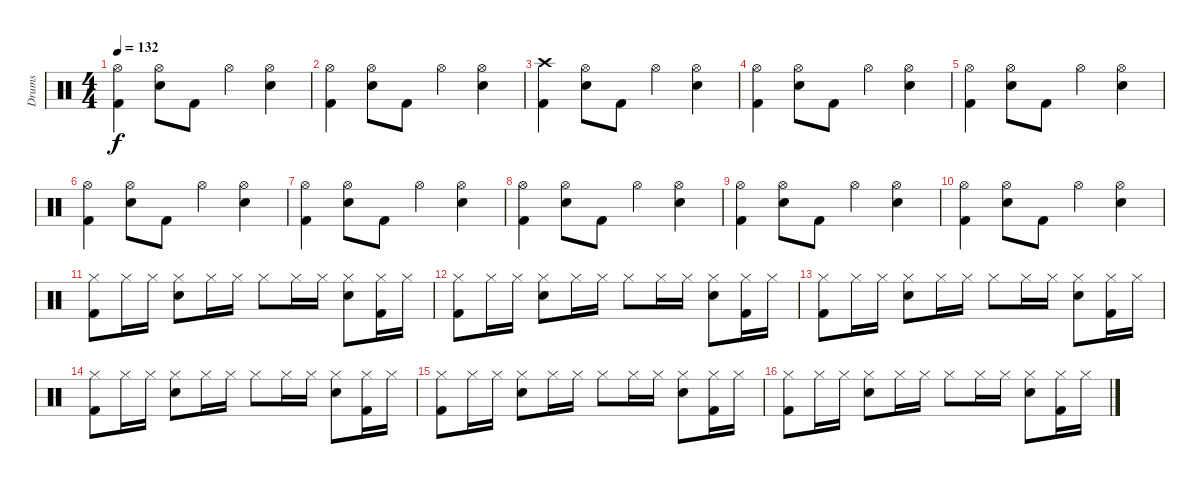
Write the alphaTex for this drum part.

\track ("Drums" "Drums") {instrument percussion}
\staff {score}
\articulation defaults
\ts (4 4)
\tempo 132
\clef neutral
\ks c
("Kick (hit) 2" "Hi-Hat (open)").4{dy f} ("Snare (hit) 2" "Hi-Hat (open)").8 "Kick (hit) 2".8 "Hi-Hat (open)".4 ("Snare (hit) 2" "Hi-Hat (open)").4 |
("Kick (hit) 2" "Hi-Hat (open)").4 ("Snare (hit) 2" "Hi-Hat (open)").8 "Kick (hit) 2".8 "Hi-Hat (open)".4 ("Snare (hit) 2" "Hi-Hat (open)").4 |
("Kick (hit) 2" "Crash high (hit)").4 ("Snare (hit) 2" "Hi-Hat (open)").8 "Kick (hit) 2".8 "Hi-Hat (open)".4 ("Snare (hit) 2" "Hi-Hat (open)").4 |
("Kick (hit) 2" "Hi-Hat (open)").4 ("Snare (hit) 2" "Hi-Hat (open)").8 "Kick (hit) 2".8 "Hi-Hat (open)".4 ("Snare (hit) 2" "Hi-Hat (open)").4 |
("Kick (hit) 2" "Hi-Hat (open)").4 ("Snare (hit) 2" "Hi-Hat (open)").8 "Kick (hit) 2".8 "Hi-Hat (open)".4 ("Snare (hit) 2" "Hi-Hat (open)").4 |
("Kick (hit) 2" "Hi-Hat (open)").4 ("Snare (hit) 2" "Hi-Hat (open)").8 "Kick (hit) 2".8 "Hi-Hat (open)".4 ("Snare (hit) 2" "Hi-Hat (open)").4 |
("Kick (hit) 2" "Hi-Hat (open)").4 ("Snare (hit) 2" "Hi-Hat (open)").8 "Kick (hit) 2".8 "Hi-Hat (open)".4 ("Snare (hit) 2" "Hi-Hat (open)").4 |
("Kick (hit) 2" "Hi-Hat (open)").4 ("Snare (hit) 2" "Hi-Hat (open)").8 "Kick (hit) 2".8 "Hi-Hat (open)".4 ("Snare (hit) 2" "Hi-Hat (open)").4 |
("Kick (hit) 2" "Hi-Hat (open)").4 ("Snare (hit) 2" "Hi-Hat (open)").8 "Kick (hit) 2".8 "Hi-Hat (open)".4 ("Snare (hit) 2" "Hi-Hat (open)").4 |
("Kick (hit) 2" "Hi-Hat (open)").4 ("Snare (hit) 2" "Hi-Hat (open)").8 "Kick (hit) 2".8 "Hi-Hat (open)".4 ("Snare (hit) 2" "Hi-Hat (open)").4 |
("Kick (hit) 2" "Hi-Hat (closed)").8 "Hi-Hat (closed)".16 "Hi-Hat (closed)".16 ("Snare (hit) 2" "Hi-Hat (closed)").8 "Hi-Hat (closed)".16 "Hi-Hat (closed)".16 "Hi-Hat (closed)".8 "Hi-Hat (closed)".16 "Hi-Hat (closed)".16 ("Snare (hit) 2" "Hi-Hat (closed)").8 ("Kick (hit) 2" "Hi-Hat (closed)").16 "Hi-Hat (closed)".16 |
("Kick (hit) 2" "Hi-Hat (closed)").8 "Hi-Hat (closed)".16 "Hi-Hat (closed)".16 ("Snare (hit) 2" "Hi-Hat (closed)").8 "Hi-Hat (closed)".16 "Hi-Hat (closed)".16 "Hi-Hat (closed)".8 "Hi-Hat (closed)".16 "Hi-Hat (closed)".16 ("Snare (hit) 2" "Hi-Hat (closed)").8 ("Kick (hit) 2" "Hi-Hat (closed)").16 "Hi-Hat (closed)".16 |
("Kick (hit) 2" "Hi-Hat (closed)").8 "Hi-Hat (closed)".16 "Hi-Hat (closed)".16 ("Snare (hit) 2" "Hi-Hat (closed)").8 "Hi-Hat (closed)".16 "Hi-Hat (closed)".16 "Hi-Hat (closed)".8 "Hi-Hat (closed)".16 "Hi-Hat (closed)".16 ("Snare (hit) 2" "Hi-Hat (closed)").8 ("Kick (hit) 2" "Hi-Hat (closed)").16 "Hi-Hat (closed)".16 |
("Kick (hit) 2" "Hi-Hat (closed)").8 "Hi-Hat (closed)".16 "Hi-Hat (closed)".16 ("Snare (hit) 2" "Hi-Hat (closed)").8 "Hi-Hat (closed)".16 "Hi-Hat (closed)".16 "Hi-Hat (closed)".8 "Hi-Hat (closed)".16 "Hi-Hat (closed)".16 ("Snare (hit) 2" "Hi-Hat (closed)").8 ("Kick (hit) 2" "Hi-Hat (closed)").16 "Hi-Hat (closed)".16 |
("Kick (hit) 2" "Hi-Hat (closed)").8 "Hi-Hat (closed)".16 "Hi-Hat (closed)".16 ("Snare (hit) 2" "Hi-Hat (closed)").8 "Hi-Hat (closed)".16 "Hi-Hat (closed)".16 "Hi-Hat (closed)".8 "Hi-Hat (closed)".16 "Hi-Hat (closed)".16 ("Snare (hit) 2" "Hi-Hat (closed)").8 ("Kick (hit) 2" "Hi-Hat (closed)").16 "Hi-Hat (closed)".16 |
("Kick (hit) 2" "Hi-Hat (closed)").8 "Hi-Hat (closed)".16 "Hi-Hat (closed)".16 ("Snare (hit) 2" "Hi-Hat (closed)").8 "Hi-Hat (closed)".16 "Hi-Hat (closed)".16 "Hi-Hat (closed)".8 "Hi-Hat (closed)".16 "Hi-Hat (closed)".16 ("Snare (hit) 2" "Hi-Hat (closed)").8 ("Kick (hit) 2" "Hi-Hat (closed)").16 "Hi-Hat (closed)".16
